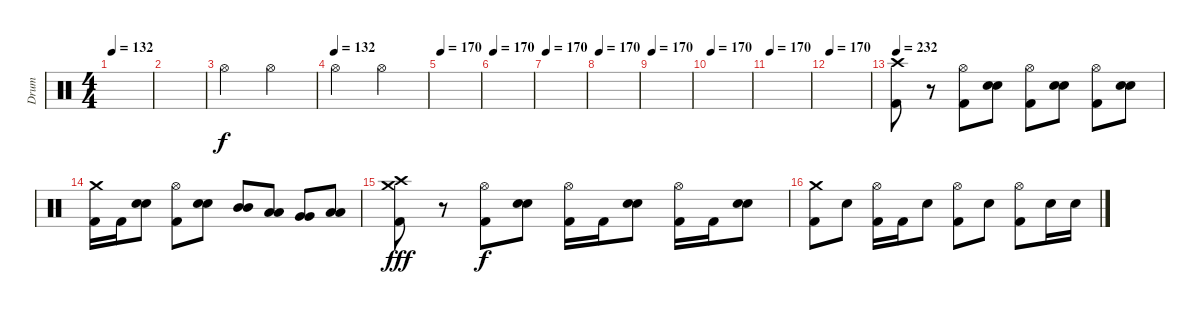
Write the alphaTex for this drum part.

\track ("Drum" "Drum") {instrument percussion}
\staff {score}
\articulation defaults
\ts (4 4)
\tempo 132
\clef neutral
\ks c
|
|
"Hi-Hat (open)".2{volume 5} "Hi-Hat (open)".2 |
\tempo (132)
"Hi-Hat (open)".2{volume 7} "Hi-Hat (open)".2 |
\tempo 170
|
\tempo 170
|
\tempo 170
|
\tempo 170
|
\tempo 170
|
\tempo 170
|
\tempo 170
|
\tempo 170
|
\tempo 232
("Crash high (hit)" "Kick (hit) 2").8{volume 13} r.8 ("Hi-Hat (open)" "Kick (hit) 2").8 ("Electric Snare (hit)" "Electric Snare (hit)").8 ("Hi-Hat (open)" "Kick (hit) 2").8 ("Electric Snare (hit)" "Electric Snare (hit)").8 ("Hi-Hat (open)" "Kick (hit) 2").8 ("Electric Snare (hit)" "Electric Snare (hit)").8 |
("Crash medium (hit)" "Kick (hit) 2").16 "Kick (hit) 2".16 ("Electric Snare (hit)" "Electric Snare (hit)").8 ("Hi-Hat (open)" "Kick (hit) 2").8 ("Electric Snare (hit)" "Electric Snare (hit)").8 ("Mid Tom (hit)" "Mid Tom (hit)").8 ("Low Tom (hit)" "Low Tom (hit)").8 ("Very Low Tom (hit)" "Very Low Tom (hit)").8 ("Low Floor Tom (hit)" "Low Floor Tom (hit)").8 |
("Crash medium (hit)" "Crash high (hit)" "Kick (hit) 2").8{dy fff} r.8 ("Hi-Hat (open)" "Kick (hit) 2").8{dy f} ("Electric Snare (hit)" "Electric Snare (hit)").8 ("Hi-Hat (open)" "Kick (hit) 2").16 "Kick (hit) 2".16 ("Electric Snare (hit)" "Electric Snare (hit)").8 ("Hi-Hat (open)" "Kick (hit) 2").16 "Kick (hit) 2".16 ("Electric Snare (hit)" "Electric Snare (hit)").8 |
("Crash medium (hit)" "Kick (hit) 2").8 "Electric Snare (hit)".8 ("Hi-Hat (open)" "Kick (hit) 2").16 "Kick (hit) 2".16 "Electric Snare (hit)".8 ("Hi-Hat (open)" "Kick (hit) 2").8 "Electric Snare (hit)".8 ("Hi-Hat (open)" "Kick (hit) 2").8 "Electric Snare (hit)".16 "Electric Snare (hit)".16
